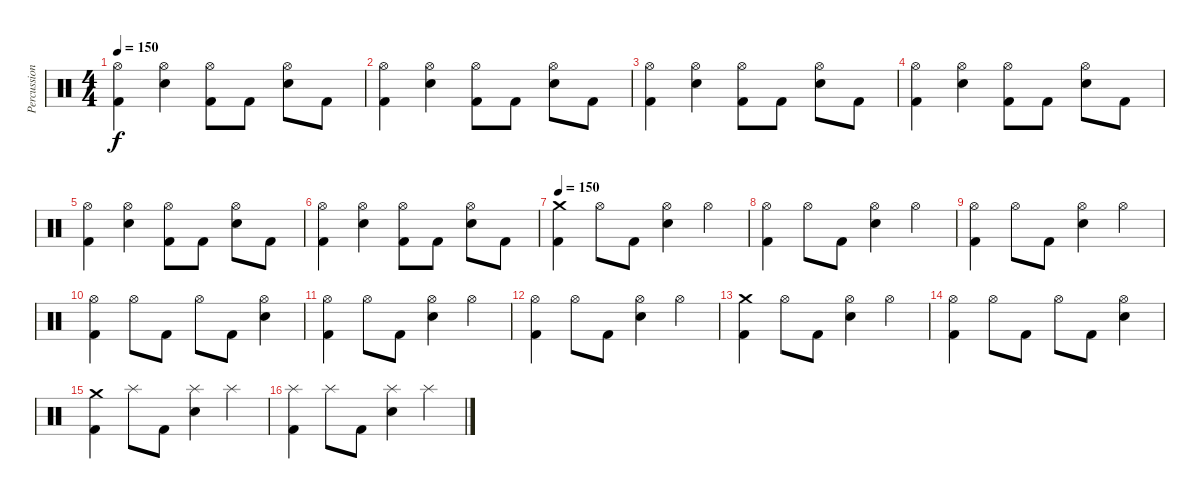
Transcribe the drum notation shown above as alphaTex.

\track ("Percussions" "Percussion") {instrument percussion}
\staff {score}
\articulation defaults
\ts (4 4)
\tempo 150
\clef neutral
\ks c
("Kick (hit) 2" "Hi-Hat (open)").4{dy f} ("Snare (hit) 2" "Hi-Hat (open)").4 ("Kick (hit) 2" "Hi-Hat (open)").8 "Kick (hit) 2".8 ("Snare (hit) 2" "Hi-Hat (open)").8 "Kick (hit) 2".8 |
("Kick (hit) 2" "Hi-Hat (open)").4 ("Snare (hit) 2" "Hi-Hat (open)").4 ("Kick (hit) 2" "Hi-Hat (open)").8 "Kick (hit) 2".8 ("Snare (hit) 2" "Hi-Hat (open)").8 "Kick (hit) 2".8 |
("Kick (hit) 2" "Hi-Hat (open)").4 ("Snare (hit) 2" "Hi-Hat (open)").4 ("Kick (hit) 2" "Hi-Hat (open)").8 "Kick (hit) 2".8 ("Snare (hit) 2" "Hi-Hat (open)").8 "Kick (hit) 2".8 |
("Kick (hit) 2" "Hi-Hat (open)").4 ("Snare (hit) 2" "Hi-Hat (open)").4 ("Kick (hit) 2" "Hi-Hat (open)").8 "Kick (hit) 2".8 ("Snare (hit) 2" "Hi-Hat (open)").8 "Kick (hit) 2".8 |
("Kick (hit) 2" "Hi-Hat (open)").4 ("Snare (hit) 2" "Hi-Hat (open)").4 ("Kick (hit) 2" "Hi-Hat (open)").8 "Kick (hit) 2".8 ("Snare (hit) 2" "Hi-Hat (open)").8 "Kick (hit) 2".8 |
("Kick (hit) 2" "Hi-Hat (open)").4 ("Snare (hit) 2" "Hi-Hat (open)").4 ("Kick (hit) 2" "Hi-Hat (open)").8 "Kick (hit) 2".8 ("Snare (hit) 2" "Hi-Hat (open)").8 "Kick (hit) 2".8 |
\tempo 150
("Kick (hit) 2" "Crash medium (hit)").4 "Hi-Hat (open)".8 "Kick (hit) 2".8 ("Snare (hit) 2" "Hi-Hat (open)").4 "Hi-Hat (open)".4 |
("Kick (hit) 2" "Hi-Hat (open)").4 "Hi-Hat (open)".8 "Kick (hit) 2".8 ("Snare (hit) 2" "Hi-Hat (open)").4 "Hi-Hat (open)".4 |
("Kick (hit) 2" "Hi-Hat (open)").4 "Hi-Hat (open)".8 "Kick (hit) 2".8 ("Snare (hit) 2" "Hi-Hat (open)").4 "Hi-Hat (open)".4 |
("Kick (hit) 2" "Hi-Hat (open)").4 "Hi-Hat (open)".8 "Kick (hit) 2".8 "Hi-Hat (open)".8 "Kick (hit) 2".8 ("Snare (hit) 2" "Hi-Hat (open)").4 |
("Kick (hit) 2" "Hi-Hat (open)").4 "Hi-Hat (open)".8 "Kick (hit) 2".8 ("Snare (hit) 2" "Hi-Hat (open)").4 "Hi-Hat (open)".4 |
("Kick (hit) 2" "Hi-Hat (open)").4 "Hi-Hat (open)".8 "Kick (hit) 2".8 ("Snare (hit) 2" "Hi-Hat (open)").4 "Hi-Hat (open)".4 |
("Kick (hit) 2" "Crash medium (hit)").4 "Hi-Hat (open)".8 "Kick (hit) 2".8 ("Snare (hit) 2" "Hi-Hat (open)").4 "Hi-Hat (open)".4 |
("Kick (hit) 2" "Hi-Hat (open)").4 "Hi-Hat (open)".8 "Kick (hit) 2".8 "Hi-Hat (open)".8 "Kick (hit) 2".8 ("Snare (hit) 2" "Hi-Hat (open)").4 |
("Kick (hit) 2" "Crash medium (hit)").4 "Splash (hit)".8 "Kick (hit) 2".8 ("Snare (hit) 2" "Splash (hit)").4 "Splash (hit)".4 |
("Kick (hit) 2" "Splash (hit)").4 "Splash (hit)".8 "Kick (hit) 2".8 ("Snare (hit) 2" "Splash (hit)").4 "Splash (hit)".4
